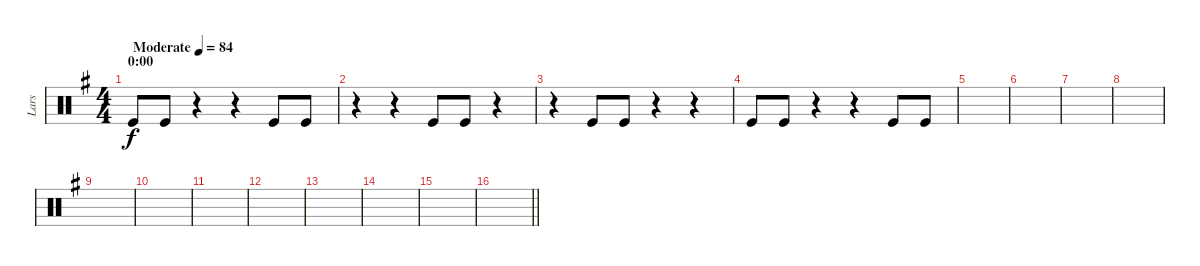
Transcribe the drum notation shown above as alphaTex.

\track ("Lars" "Lars") {instrument percussion}
\staff {score}
\articulation defaults
\ts (4 4)
\section ("" "0:00")
\tempo (84 "Moderate")
\clef neutral
\ks eminor "Kick (hit)".8{dy f} "Kick (hit)".8
r.4 r.4 "Kick (hit)".8 "Kick (hit)".8 |
r.4 r.4 "Kick (hit)".8 "Kick (hit)".8 r.4 |
r.4 "Kick (hit)".8 "Kick (hit)".8 r.4 r.4 |
"Kick (hit)".8 "Kick (hit)".8 r.4 r.4 "Kick (hit)".8 "Kick (hit)".8 |
|
|
|
|
|
|
|
|
|
|
|
\barLineRight lightlight
